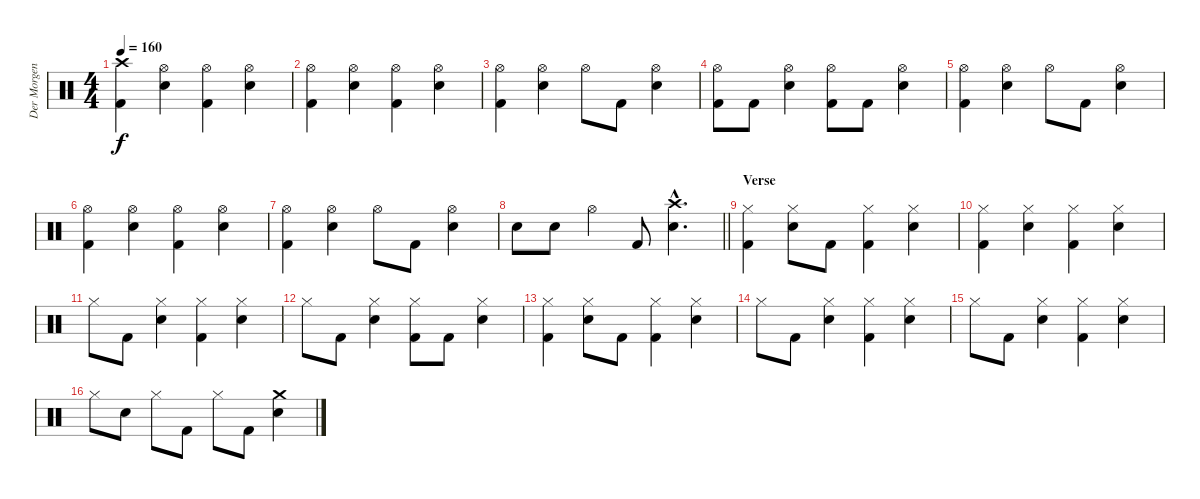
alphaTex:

\track ("Der Morgenstern" "Der Morgen") {instrument percussion}
\staff {score}
\articulation defaults
\ts (4 4)
\tempo 160
\clef neutral
\ks c
("Crash high (hit)" "Kick (hit) 2").4{dy f} ("Hi-Hat (open)" "Electric Snare (hit)").4 ("Hi-Hat (open)" "Kick (hit) 2").4 ("Hi-Hat (open)" "Electric Snare (hit)").4 |
("Hi-Hat (open)" "Kick (hit) 2").4 ("Hi-Hat (open)" "Electric Snare (hit)").4 ("Hi-Hat (open)" "Kick (hit) 2").4 ("Hi-Hat (open)" "Electric Snare (hit)").4 |
("Hi-Hat (open)" "Kick (hit) 2").4 ("Hi-Hat (open)" "Electric Snare (hit)").4 "Hi-Hat (open)".8 "Kick (hit) 2".8 ("Hi-Hat (open)" "Electric Snare (hit)").4 |
("Hi-Hat (open)" "Kick (hit) 2").8 "Kick (hit) 2".8 ("Hi-Hat (open)" "Electric Snare (hit)").4 ("Hi-Hat (open)" "Kick (hit) 2").8 "Kick (hit) 2".8 ("Hi-Hat (open)" "Electric Snare (hit)").4 |
("Hi-Hat (open)" "Kick (hit) 2").4 ("Hi-Hat (open)" "Electric Snare (hit)").4 "Hi-Hat (open)".8 "Kick (hit) 2".8 ("Hi-Hat (open)" "Electric Snare (hit)").4 |
("Hi-Hat (open)" "Kick (hit) 2").4 ("Hi-Hat (open)" "Electric Snare (hit)").4 ("Hi-Hat (open)" "Kick (hit) 2").4 ("Hi-Hat (open)" "Electric Snare (hit)").4 |
("Hi-Hat (open)" "Kick (hit) 2").4 ("Hi-Hat (open)" "Electric Snare (hit)").4 "Hi-Hat (open)".8 "Kick (hit) 2".8 ("Hi-Hat (open)" "Electric Snare (hit)").4 |
\barLineRight lightlight "Electric Snare (hit)".8 "Electric Snare (hit)".8 "Hi-Hat (open)".4 "Kick (hit) 2".8
("Crash high (hit)"{hac} "Electric Snare (hit)"{hac}).4{d} |
\section ("" "Verse")
("Hi-Hat (closed)" "Kick (hit) 2").4 ("Hi-Hat (closed)" "Electric Snare (hit)").8 "Kick (hit) 2".8 ("Hi-Hat (closed)" "Kick (hit) 2").4 ("Hi-Hat (closed)" "Electric Snare (hit)").4 |
("Hi-Hat (closed)" "Kick (hit) 2").4 ("Hi-Hat (closed)" "Electric Snare (hit)").4 ("Hi-Hat (closed)" "Kick (hit) 2").4 ("Hi-Hat (closed)" "Electric Snare (hit)").4 |
"Hi-Hat (closed)".8 "Kick (hit) 2".8 ("Hi-Hat (closed)" "Electric Snare (hit)").4 ("Hi-Hat (closed)" "Kick (hit) 2").4 ("Hi-Hat (closed)" "Electric Snare (hit)").4 |
"Hi-Hat (closed)".8 "Kick (hit) 2".8 ("Hi-Hat (closed)" "Electric Snare (hit)").4 ("Hi-Hat (closed)" "Kick (hit) 2").8 "Kick (hit) 2".8 ("Hi-Hat (closed)" "Electric Snare (hit)").4 |
("Hi-Hat (closed)" "Kick (hit) 2").4 ("Hi-Hat (closed)" "Electric Snare (hit)").8 "Kick (hit) 2".8 ("Hi-Hat (closed)" "Kick (hit) 2").4 ("Hi-Hat (closed)" "Electric Snare (hit)").4 |
"Hi-Hat (closed)".8 "Kick (hit) 2".8 ("Hi-Hat (closed)" "Electric Snare (hit)").4 ("Hi-Hat (closed)" "Kick (hit) 2").4 ("Hi-Hat (closed)" "Electric Snare (hit)").4 |
"Hi-Hat (closed)".8 "Kick (hit) 2".8 ("Hi-Hat (closed)" "Electric Snare (hit)").4 ("Hi-Hat (closed)" "Kick (hit) 2").4 ("Hi-Hat (closed)" "Electric Snare (hit)").4 |
"Hi-Hat (closed)".8 "Electric Snare (hit)".8 "Hi-Hat (closed)".8 "Kick (hit) 2".8 "Hi-Hat (closed)".8 "Kick (hit) 2".8 ("Crash medium (hit)" "Electric Snare (hit)").4
